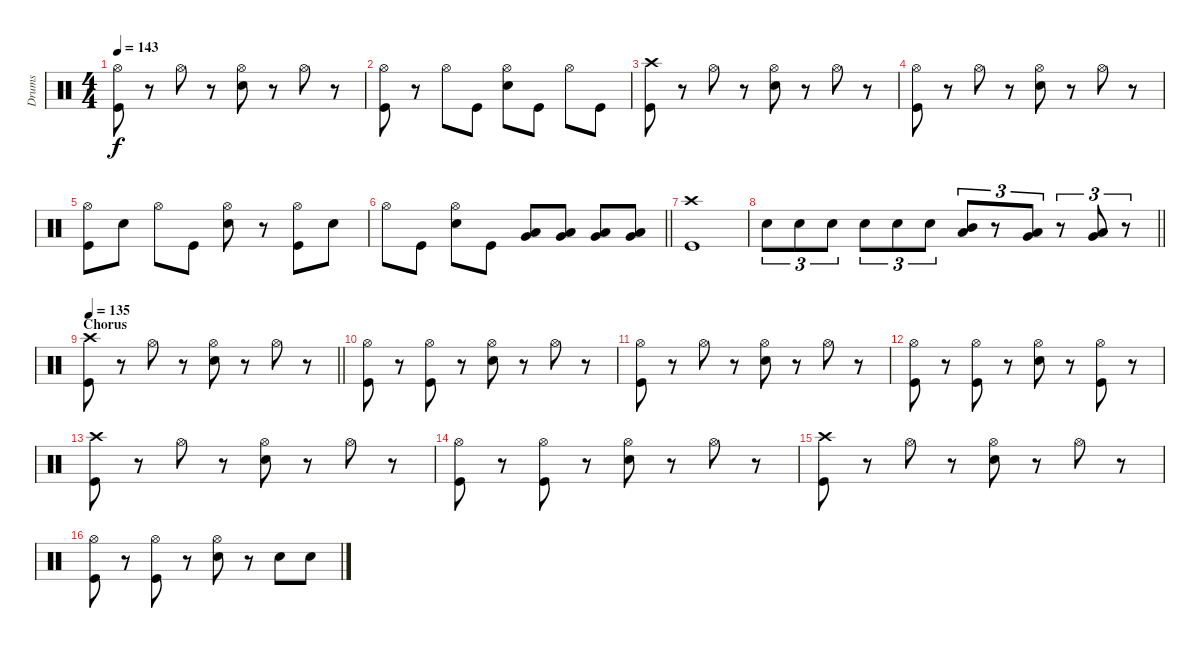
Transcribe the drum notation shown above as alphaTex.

\track ("Drums" "Drums") {instrument percussion}
\staff {score}
\articulation defaults
\ts (4 4)
\tempo 143
\clef neutral
\ks c
("Hi-Hat (open)" "Kick (hit)").8{dy f} r.8 "Hi-Hat (open)".8 r.8 ("Hi-Hat (open)" "Snare (hit) 2").8 r.8 "Hi-Hat (open)".8 r.8 |
("Hi-Hat (open)" "Kick (hit)").8 r.8 "Hi-Hat (open)".8 "Kick (hit)".8 ("Hi-Hat (open)" "Snare (hit) 2").8 "Kick (hit)".8 "Hi-Hat (open)".8 "Kick (hit)".8 |
("Crash high (hit)" "Kick (hit)").8 r.8 "Hi-Hat (open)".8 r.8 ("Hi-Hat (open)" "Snare (hit) 2").8 r.8 "Hi-Hat (open)".8 r.8 |
("Hi-Hat (open)" "Kick (hit)").8 r.8 "Hi-Hat (open)".8 r.8 ("Hi-Hat (open)" "Snare (hit) 2").8 r.8 "Hi-Hat (open)".8 r.8 |
("Hi-Hat (open)" "Kick (hit)").8 "Snare (hit) 2".8 "Hi-Hat (open)".8 "Kick (hit)".8 ("Hi-Hat (open)" "Snare (hit) 2").8 r.8 ("Hi-Hat (open)" "Kick (hit)").8 "Snare (hit) 2".8 |
\barLineRight lightlight "Hi-Hat (open)".8 "Kick (hit)".8
("Hi-Hat (open)" "Snare (hit) 2").8 "Kick (hit)".8 ("Low Tom (hit)" "Very Low Tom (hit)").8 ("Low Tom (hit)" "Very Low Tom (hit)").8 ("Very Low Tom (hit)" "Low Floor Tom (hit)").8 ("Very Low Tom (hit)" "Low Floor Tom (hit)").8 |
("Crash high (hit)" "Kick (hit)").1 |
\barLineRight lightlight "Snare (hit) 2".8{tu (3 2)} "Snare (hit) 2".8{tu (3 2)} "Snare (hit) 2".8{tu (3 2)} "Snare (hit) 2".8{tu (3 2)} "Snare (hit) 2".8{tu (3 2)} "Snare (hit) 2".8{tu (3 2)}
("Mid Tom (hit)" "Low Tom (hit)").8{tu (3 2)} r.8{tu (3 2)} ("Low Tom (hit)" "Very Low Tom (hit)").8{tu (3 2)} r.8{tu (3 2)} ("Very Low Tom (hit)" "Low Floor Tom (hit)").8{tu (3 2)} r.8{tu (3 2)} |
\section ("" "Chorus")
\tempo 135
\barLineRight lightlight
("Crash high (hit)" "Kick (hit)").8 r.8 "Hi-Hat (open)".8 r.8 ("Hi-Hat (open)" "Snare (hit) 2").8 r.8 "Hi-Hat (open)".8 r.8 |
("Hi-Hat (open)" "Kick (hit)").8 r.8 ("Hi-Hat (open)" "Kick (hit)").8 r.8 ("Hi-Hat (open)" "Snare (hit) 2").8 r.8 "Hi-Hat (open)".8 r.8 |
("Hi-Hat (open)" "Kick (hit)").8 r.8 "Hi-Hat (open)".8 r.8 ("Hi-Hat (open)" "Snare (hit) 2").8 r.8 "Hi-Hat (open)".8 r.8 |
("Hi-Hat (open)" "Kick (hit)").8 r.8 ("Hi-Hat (open)" "Kick (hit)").8 r.8 ("Hi-Hat (open)" "Snare (hit) 2").8 r.8 ("Hi-Hat (open)" "Kick (hit)").8 r.8 |
("Crash high (hit)" "Kick (hit)").8 r.8 "Hi-Hat (open)".8 r.8 ("Hi-Hat (open)" "Snare (hit) 2").8 r.8 "Hi-Hat (open)".8 r.8 |
("Hi-Hat (open)" "Kick (hit)").8 r.8 ("Hi-Hat (open)" "Kick (hit)").8 r.8 ("Hi-Hat (open)" "Snare (hit) 2").8 r.8 "Hi-Hat (open)".8 r.8 |
("Crash high (hit)" "Kick (hit)").8 r.8 "Hi-Hat (open)".8 r.8 ("Hi-Hat (open)" "Snare (hit) 2").8 r.8 "Hi-Hat (open)".8 r.8 |
("Hi-Hat (open)" "Kick (hit)").8 r.8 ("Hi-Hat (open)" "Kick (hit)").8 r.8 ("Hi-Hat (open)" "Snare (hit) 2").8 r.8 "Snare (hit) 2".8 "Snare (hit) 2".8
